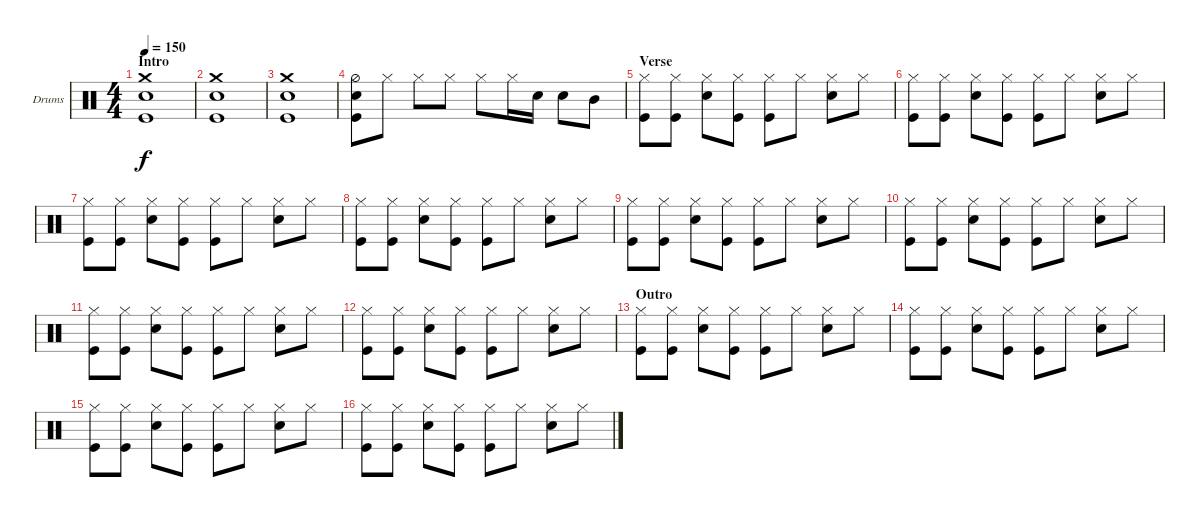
\bracketExtendMode groupsimilarinstruments
\firstSystemTrackNameOrientation horizontal
\otherSystemsTrackNameOrientation horizontal
\track ("Fabrizio" "Drums") {instrument percussion}
\staff {score}
\articulation defaults
\ts (4 4)
\section ("" "Intro")
\tempo 150
\clef neutral
\ks c
("Crash medium (hit)" "Kick (hit)" "Snare (hit) 2").1{dy f} |
("Crash medium (hit)" "Kick (hit)" "Snare (hit) 2").1 |
("Crash medium (hit)" "Kick (hit)" "Snare (hit) 2").1 |
("Kick (hit)" "Snare (hit) 2" "Hi-Hat (half)").8 "Hi-Hat (closed)".8 "Hi-Hat (closed)".8 "Hi-Hat (closed)".8 "Hi-Hat (closed)".8 "Hi-Hat (closed)".16 "Snare (hit) 2".16 "Snare (hit) 2".8 "Mid Tom (hit)".8 |
\section ("" "Verse")
("Hi-Hat (closed)" "Kick (hit)").8 ("Hi-Hat (closed)" "Kick (hit)").8 ("Hi-Hat (closed)" "Snare (hit) 2").8 ("Hi-Hat (closed)" "Kick (hit)").8 ("Hi-Hat (closed)" "Kick (hit)").8 "Hi-Hat (closed)".8 ("Hi-Hat (closed)" "Snare (hit) 2").8 "Hi-Hat (closed)".8 |
("Hi-Hat (closed)" "Kick (hit)").8 ("Hi-Hat (closed)" "Kick (hit)").8 ("Hi-Hat (closed)" "Snare (hit) 2").8 ("Hi-Hat (closed)" "Kick (hit)").8 ("Hi-Hat (closed)" "Kick (hit)").8 "Hi-Hat (closed)".8 ("Hi-Hat (closed)" "Snare (hit) 2").8 "Hi-Hat (closed)".8 |
("Hi-Hat (closed)" "Kick (hit)").8 ("Hi-Hat (closed)" "Kick (hit)").8 ("Hi-Hat (closed)" "Snare (hit) 2").8 ("Hi-Hat (closed)" "Kick (hit)").8 ("Hi-Hat (closed)" "Kick (hit)").8 "Hi-Hat (closed)".8 ("Hi-Hat (closed)" "Snare (hit) 2").8 "Hi-Hat (closed)".8 |
("Hi-Hat (closed)" "Kick (hit)").8 ("Hi-Hat (closed)" "Kick (hit)").8 ("Hi-Hat (closed)" "Snare (hit) 2").8 ("Hi-Hat (closed)" "Kick (hit)").8 ("Hi-Hat (closed)" "Kick (hit)").8 "Hi-Hat (closed)".8 ("Hi-Hat (closed)" "Snare (hit) 2").8 "Hi-Hat (closed)".8 |
("Hi-Hat (closed)" "Kick (hit)").8 ("Hi-Hat (closed)" "Kick (hit)").8 ("Hi-Hat (closed)" "Snare (hit) 2").8 ("Hi-Hat (closed)" "Kick (hit)").8 ("Hi-Hat (closed)" "Kick (hit)").8 "Hi-Hat (closed)".8 ("Hi-Hat (closed)" "Snare (hit) 2").8 "Hi-Hat (closed)".8 |
("Hi-Hat (closed)" "Kick (hit)").8 ("Hi-Hat (closed)" "Kick (hit)").8 ("Hi-Hat (closed)" "Snare (hit) 2").8 ("Hi-Hat (closed)" "Kick (hit)").8 ("Hi-Hat (closed)" "Kick (hit)").8 "Hi-Hat (closed)".8 ("Hi-Hat (closed)" "Snare (hit) 2").8 "Hi-Hat (closed)".8 |
("Hi-Hat (closed)" "Kick (hit)").8 ("Hi-Hat (closed)" "Kick (hit)").8 ("Hi-Hat (closed)" "Snare (hit) 2").8 ("Hi-Hat (closed)" "Kick (hit)").8 ("Hi-Hat (closed)" "Kick (hit)").8 "Hi-Hat (closed)".8 ("Hi-Hat (closed)" "Snare (hit) 2").8 "Hi-Hat (closed)".8 |
("Hi-Hat (closed)" "Kick (hit)").8 ("Hi-Hat (closed)" "Kick (hit)").8 ("Hi-Hat (closed)" "Snare (hit) 2").8 ("Hi-Hat (closed)" "Kick (hit)").8 ("Hi-Hat (closed)" "Kick (hit)").8 "Hi-Hat (closed)".8 ("Hi-Hat (closed)" "Snare (hit) 2").8 "Hi-Hat (closed)".8 |
\section ("" "Outro")
("Hi-Hat (closed)" "Kick (hit)").8 ("Hi-Hat (closed)" "Kick (hit)").8 ("Hi-Hat (closed)" "Snare (hit) 2").8 ("Hi-Hat (closed)" "Kick (hit)").8 ("Hi-Hat (closed)" "Kick (hit)").8 "Hi-Hat (closed)".8 ("Hi-Hat (closed)" "Snare (hit) 2").8 "Hi-Hat (closed)".8 |
("Hi-Hat (closed)" "Kick (hit)").8 ("Hi-Hat (closed)" "Kick (hit)").8 ("Hi-Hat (closed)" "Snare (hit) 2").8 ("Hi-Hat (closed)" "Kick (hit)").8 ("Hi-Hat (closed)" "Kick (hit)").8 "Hi-Hat (closed)".8 ("Hi-Hat (closed)" "Snare (hit) 2").8 "Hi-Hat (closed)".8 |
("Hi-Hat (closed)" "Kick (hit)").8 ("Hi-Hat (closed)" "Kick (hit)").8 ("Hi-Hat (closed)" "Snare (hit) 2").8 ("Hi-Hat (closed)" "Kick (hit)").8 ("Hi-Hat (closed)" "Kick (hit)").8 "Hi-Hat (closed)".8 ("Hi-Hat (closed)" "Snare (hit) 2").8 "Hi-Hat (closed)".8 |
("Hi-Hat (closed)" "Kick (hit)").8 ("Hi-Hat (closed)" "Kick (hit)").8 ("Hi-Hat (closed)" "Snare (hit) 2").8 ("Hi-Hat (closed)" "Kick (hit)").8 ("Hi-Hat (closed)" "Kick (hit)").8 "Hi-Hat (closed)".8 ("Hi-Hat (closed)" "Snare (hit) 2").8 "Hi-Hat (closed)".8
